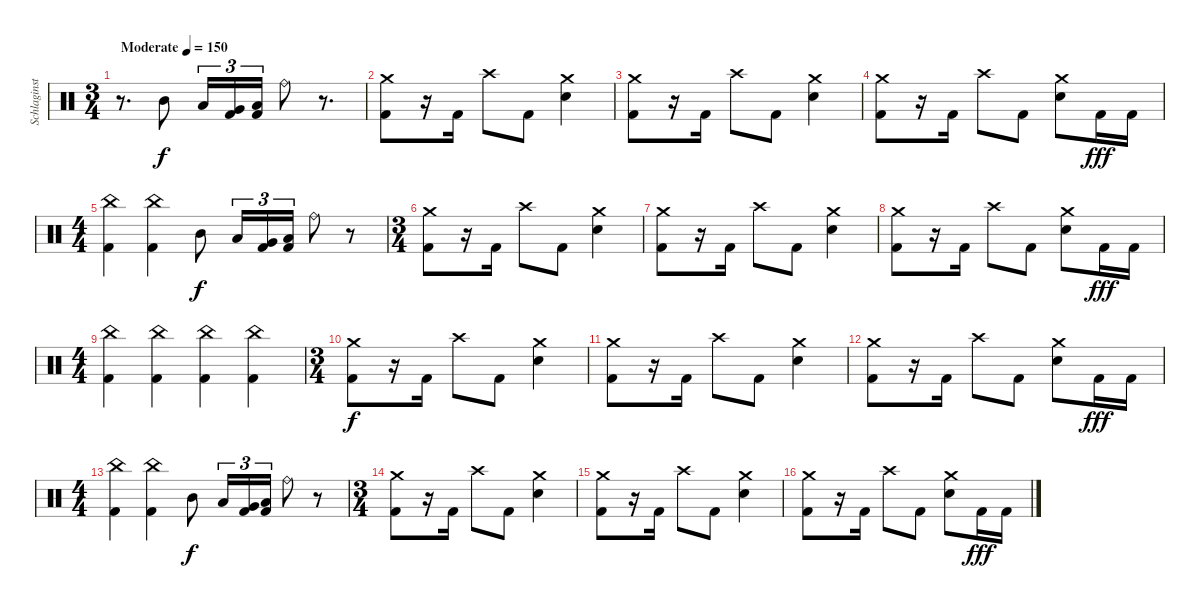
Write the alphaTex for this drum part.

\track ("Schlaginstrumente - Auswahl" "Schlaginst") {instrument percussion}
\staff {score}
\articulation defaults
\ts (3 4)
\tempo (150 "Moderate")
\clef neutral
\ks c
r.8{d dy f} "Mid Tom (hit)".8 "Low Tom (hit)".16{tu (3 2)} ("Very Low Tom (hit)" "Kick (hit) 2").16{tu (3 2)} ("Low Tom (hit)" "Kick (hit) 2").16{tu (3 2)} "Ride (bell)".8 r.8{d} |
("Crash medium (hit)" "Kick (hit) 2").8 r.16 "Kick (hit) 2".16 "Crash high (hit)".8 "Kick (hit) 2".8 ("Crash medium (hit)" "Electric Snare (hit)").4 |
("Crash medium (hit)" "Kick (hit) 2").8 r.16 "Kick (hit) 2".16 "Crash high (hit)".8 "Kick (hit) 2".8 ("Crash medium (hit)" "Electric Snare (hit)").4 |
("Crash medium (hit)" "Kick (hit) 2").8 r.16 "Kick (hit) 2".16 "Crash high (hit)".8 "Kick (hit) 2".8 ("Crash medium (hit)" "Electric Snare (hit)").8 "Kick (hit) 2".16{dy fff} "Kick (hit) 2".16 |
\ts (4 4)
("China (hit)" "Kick (hit) 2").4 ("China (hit)" "Kick (hit) 2").4 "Mid Tom (hit)".8{dy f} "Low Tom (hit)".16{tu (3 2)} ("Very Low Tom (hit)" "Kick (hit) 2").16{tu (3 2)} ("Low Tom (hit)" "Kick (hit) 2").16{tu (3 2)} "Ride (bell)".8 r.8 |
\ts (3 4)
("Crash medium (hit)" "Kick (hit) 2").8 r.16 "Kick (hit) 2".16 "Crash high (hit)".8 "Kick (hit) 2".8 ("Crash medium (hit)" "Electric Snare (hit)").4 |
("Crash medium (hit)" "Kick (hit) 2").8 r.16 "Kick (hit) 2".16 "Crash high (hit)".8 "Kick (hit) 2".8 ("Crash medium (hit)" "Electric Snare (hit)").4 |
("Crash medium (hit)" "Kick (hit) 2").8 r.16 "Kick (hit) 2".16 "Crash high (hit)".8 "Kick (hit) 2".8 ("Crash medium (hit)" "Electric Snare (hit)").8 "Kick (hit) 2".16{dy fff} "Kick (hit) 2".16 |
\ts (4 4)
("China (hit)" "Kick (hit) 2").4 ("China (hit)" "Kick (hit) 2").4 ("China (hit)" "Kick (hit) 2").4 ("China (hit)" "Kick (hit) 2").4 |
\ts (3 4)
("Crash medium (hit)" "Kick (hit) 2").8{dy f} r.16 "Kick (hit) 2".16 "Crash high (hit)".8 "Kick (hit) 2".8 ("Crash medium (hit)" "Electric Snare (hit)").4 |
("Crash medium (hit)" "Kick (hit) 2").8 r.16 "Kick (hit) 2".16 "Crash high (hit)".8 "Kick (hit) 2".8 ("Crash medium (hit)" "Electric Snare (hit)").4 |
("Crash medium (hit)" "Kick (hit) 2").8 r.16 "Kick (hit) 2".16 "Crash high (hit)".8 "Kick (hit) 2".8 ("Crash medium (hit)" "Electric Snare (hit)").8 "Kick (hit) 2".16{dy fff} "Kick (hit) 2".16 |
\ts (4 4)
("China (hit)" "Kick (hit) 2").4 ("China (hit)" "Kick (hit) 2").4 "Mid Tom (hit)".8{dy f} "Low Tom (hit)".16{tu (3 2)} ("Very Low Tom (hit)" "Kick (hit) 2").16{tu (3 2)} ("Low Tom (hit)" "Kick (hit) 2").16{tu (3 2)} "Ride (bell)".8 r.8 |
\ts (3 4)
("Crash medium (hit)" "Kick (hit) 2").8 r.16 "Kick (hit) 2".16 "Crash high (hit)".8 "Kick (hit) 2".8 ("Crash medium (hit)" "Electric Snare (hit)").4 |
("Crash medium (hit)" "Kick (hit) 2").8 r.16 "Kick (hit) 2".16 "Crash high (hit)".8 "Kick (hit) 2".8 ("Crash medium (hit)" "Electric Snare (hit)").4 |
("Crash medium (hit)" "Kick (hit) 2").8 r.16 "Kick (hit) 2".16 "Crash high (hit)".8 "Kick (hit) 2".8 ("Crash medium (hit)" "Electric Snare (hit)").8 "Kick (hit) 2".16{dy fff} "Kick (hit) 2".16
